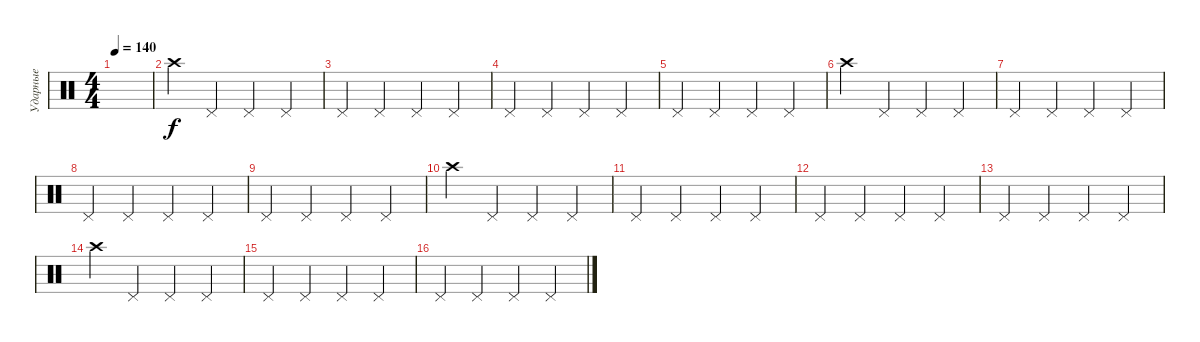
\track ("Ударные" "Ударные") {instrument percussion}
\staff {score}
\articulation defaults
\ts (4 4)
\tempo 140
\clef neutral
\ks c
|
"Crash high (hit)".4 "Pedal Hi-Hat (hit)".4 "Pedal Hi-Hat (hit)".4 "Pedal Hi-Hat (hit)".4 |
"Pedal Hi-Hat (hit)".4 "Pedal Hi-Hat (hit)".4 "Pedal Hi-Hat (hit)".4 "Pedal Hi-Hat (hit)".4 |
"Pedal Hi-Hat (hit)".4 "Pedal Hi-Hat (hit)".4 "Pedal Hi-Hat (hit)".4 "Pedal Hi-Hat (hit)".4 |
"Pedal Hi-Hat (hit)".4 "Pedal Hi-Hat (hit)".4 "Pedal Hi-Hat (hit)".4 "Pedal Hi-Hat (hit)".4 |
"Crash high (hit)".4 "Pedal Hi-Hat (hit)".4 "Pedal Hi-Hat (hit)".4 "Pedal Hi-Hat (hit)".4 |
"Pedal Hi-Hat (hit)".4 "Pedal Hi-Hat (hit)".4 "Pedal Hi-Hat (hit)".4 "Pedal Hi-Hat (hit)".4 |
"Pedal Hi-Hat (hit)".4 "Pedal Hi-Hat (hit)".4 "Pedal Hi-Hat (hit)".4 "Pedal Hi-Hat (hit)".4 |
"Pedal Hi-Hat (hit)".4 "Pedal Hi-Hat (hit)".4 "Pedal Hi-Hat (hit)".4 "Pedal Hi-Hat (hit)".4 |
"Crash high (hit)".4 "Pedal Hi-Hat (hit)".4 "Pedal Hi-Hat (hit)".4 "Pedal Hi-Hat (hit)".4 |
"Pedal Hi-Hat (hit)".4 "Pedal Hi-Hat (hit)".4 "Pedal Hi-Hat (hit)".4 "Pedal Hi-Hat (hit)".4 |
"Pedal Hi-Hat (hit)".4 "Pedal Hi-Hat (hit)".4 "Pedal Hi-Hat (hit)".4 "Pedal Hi-Hat (hit)".4 |
"Pedal Hi-Hat (hit)".4 "Pedal Hi-Hat (hit)".4 "Pedal Hi-Hat (hit)".4 "Pedal Hi-Hat (hit)".4 |
"Crash high (hit)".4 "Pedal Hi-Hat (hit)".4 "Pedal Hi-Hat (hit)".4 "Pedal Hi-Hat (hit)".4 |
"Pedal Hi-Hat (hit)".4 "Pedal Hi-Hat (hit)".4 "Pedal Hi-Hat (hit)".4 "Pedal Hi-Hat (hit)".4 |
"Pedal Hi-Hat (hit)".4 "Pedal Hi-Hat (hit)".4 "Pedal Hi-Hat (hit)".4 "Pedal Hi-Hat (hit)".4
